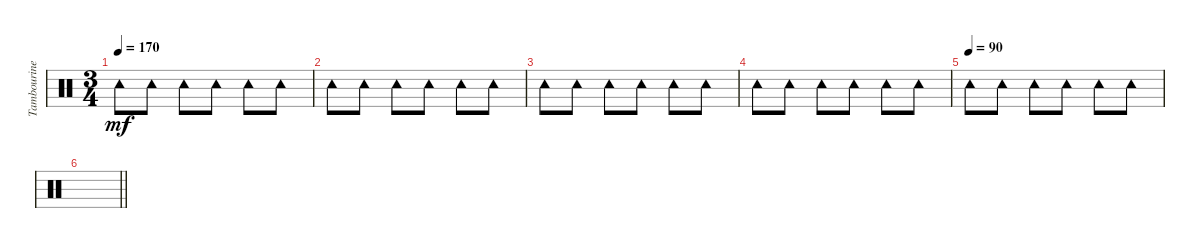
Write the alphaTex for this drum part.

\track ("Tambourine" "Tambourine") {instrument percussion}
\staff {score}
\articulation defaults
\ts (3 4)
\tempo 170
\clef neutral
\ks c "Tambourine (hit)".8{dy mf} "Tambourine (hit)".8 "Tambourine (hit)".8 "Tambourine (hit)".8 "Tambourine (hit)".8 "Tambourine (hit)".8
|
"Tambourine (hit)".8 "Tambourine (hit)".8 "Tambourine (hit)".8 "Tambourine (hit)".8 "Tambourine (hit)".8 "Tambourine (hit)".8 |
"Tambourine (hit)".8 "Tambourine (hit)".8 "Tambourine (hit)".8 "Tambourine (hit)".8 "Tambourine (hit)".8 "Tambourine (hit)".8 |
"Tambourine (hit)".8 "Tambourine (hit)".8 "Tambourine (hit)".8 "Tambourine (hit)".8 "Tambourine (hit)".8 "Tambourine (hit)".8 |
\tempo (90)
"Tambourine (hit)".8 "Tambourine (hit)".8 "Tambourine (hit)".8 "Tambourine (hit)".8 "Tambourine (hit)".8 "Tambourine (hit)".8 |
\barLineRight lightlight
